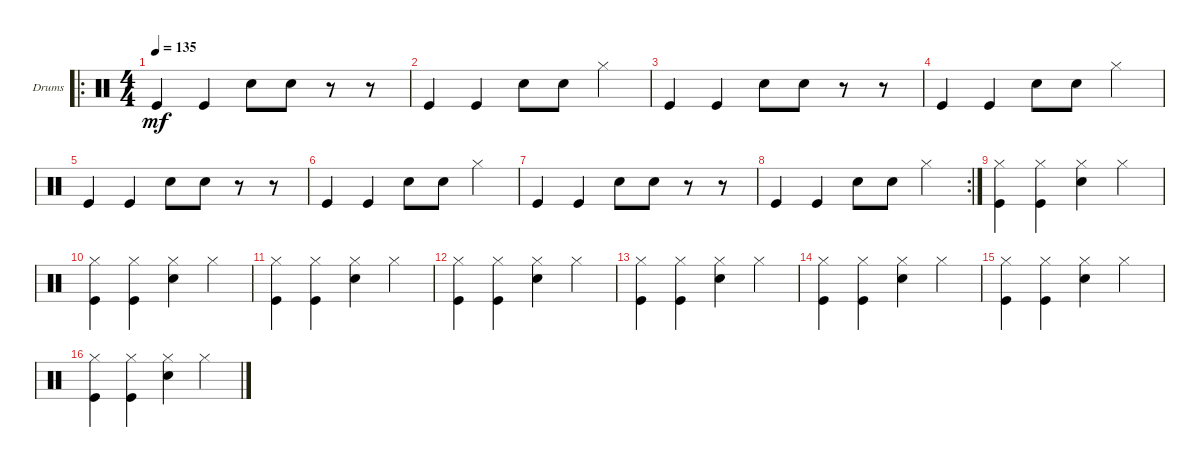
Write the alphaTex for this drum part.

\defaultSystemsLayout 4
\bracketExtendMode groupsimilarinstruments
\firstSystemTrackNameOrientation horizontal
\otherSystemsTrackNameOrientation horizontal
\track ("Drumkit" "Drums") {instrument percussion}
\staff {score}
\articulation defaults
\ro
\ts (4 4)
\tempo 135
\clef neutral
\ks c "Kick (hit)".4{dy mf} "Kick (hit)".4 "Snare (hit) 2".8 "Snare (hit) 2".8
r.8 r.8 |
"Kick (hit)".4 "Kick (hit)".4 "Snare (hit) 2".8 "Snare (hit) 2".8 "Hi-Hat (closed)".4 |
"Kick (hit)".4 "Kick (hit)".4 "Snare (hit) 2".8 "Snare (hit) 2".8 r.8 r.8 |
"Kick (hit)".4 "Kick (hit)".4 "Snare (hit) 2".8 "Snare (hit) 2".8 "Hi-Hat (closed)".4 |
"Kick (hit)".4 "Kick (hit)".4 "Snare (hit) 2".8 "Snare (hit) 2".8 r.8 r.8 |
"Kick (hit)".4 "Kick (hit)".4 "Snare (hit) 2".8 "Snare (hit) 2".8 "Hi-Hat (closed)".4 |
"Kick (hit)".4 "Kick (hit)".4 "Snare (hit) 2".8 "Snare (hit) 2".8 r.8 r.8 |
\rc 2 "Kick (hit)".4 "Kick (hit)".4 "Snare (hit) 2".8 "Snare (hit) 2".8 "Hi-Hat (closed)".4
|
("Kick (hit)" "Hi-Hat (closed)").4 ("Hi-Hat (closed)" "Kick (hit)").4 ("Hi-Hat (closed)" "Snare (hit) 2").4 "Hi-Hat (closed)".4 |
("Kick (hit)" "Hi-Hat (closed)").4 ("Hi-Hat (closed)" "Kick (hit)").4 ("Hi-Hat (closed)" "Snare (hit) 2").4 "Hi-Hat (closed)".4 |
("Kick (hit)" "Hi-Hat (closed)").4 ("Hi-Hat (closed)" "Kick (hit)").4 ("Hi-Hat (closed)" "Snare (hit) 2").4 "Hi-Hat (closed)".4 |
("Kick (hit)" "Hi-Hat (closed)").4 ("Hi-Hat (closed)" "Kick (hit)").4 ("Hi-Hat (closed)" "Snare (hit) 2").4 "Hi-Hat (closed)".4 |
("Kick (hit)" "Hi-Hat (closed)").4 ("Hi-Hat (closed)" "Kick (hit)").4 ("Hi-Hat (closed)" "Snare (hit) 2").4 "Hi-Hat (closed)".4 |
("Kick (hit)" "Hi-Hat (closed)").4 ("Hi-Hat (closed)" "Kick (hit)").4 ("Hi-Hat (closed)" "Snare (hit) 2").4 "Hi-Hat (closed)".4 |
("Kick (hit)" "Hi-Hat (closed)").4 ("Hi-Hat (closed)" "Kick (hit)").4 ("Hi-Hat (closed)" "Snare (hit) 2").4 "Hi-Hat (closed)".4 |
("Kick (hit)" "Hi-Hat (closed)").4 ("Hi-Hat (closed)" "Kick (hit)").4 ("Hi-Hat (closed)" "Snare (hit) 2").4 "Hi-Hat (closed)".4
